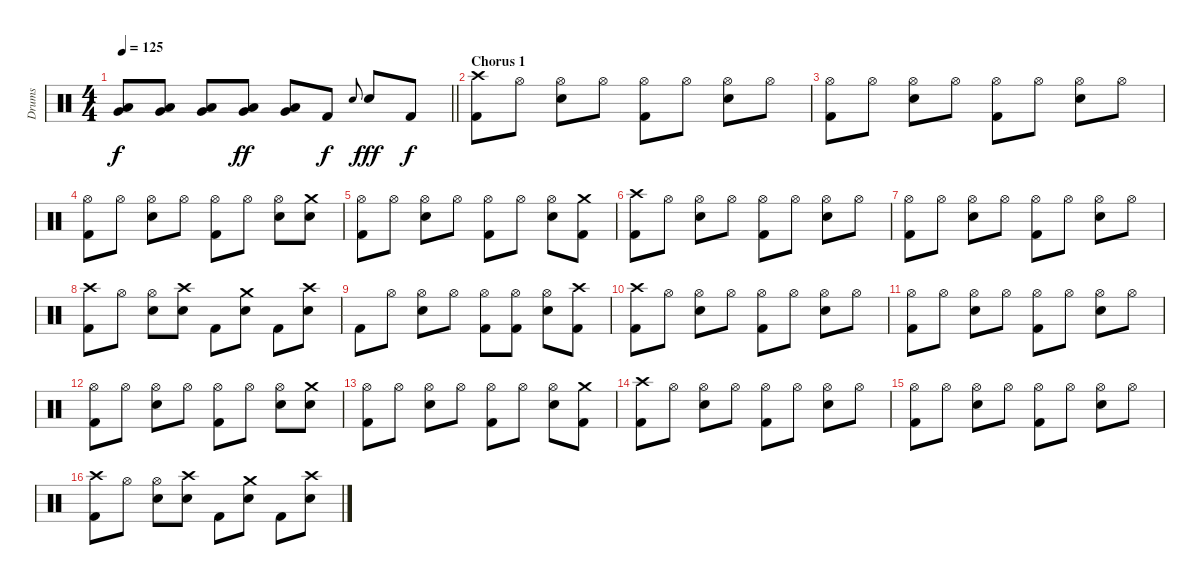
\track ("Drums" "Drums") {instrument percussion}
\staff {score}
\articulation defaults
\ts (4 4)
\tempo 125
\clef neutral
\barLineRight lightlight
\ks c
("Very Low Tom (hit)" "Low Floor Tom (hit)").8{dy f} ("Very Low Tom (hit)" "Low Floor Tom (hit)").8 ("Very Low Tom (hit)" "Low Floor Tom (hit)").8 ("Very Low Tom (hit)" "Low Floor Tom (hit)").8{dy ff} ("Very Low Tom (hit)" "Low Floor Tom (hit)").8 "Kick (hit) 2".8{dy f} "Electric Snare (hit)".8{gr onbeat} "Electric Snare (hit)".8{dy fff} "Kick (hit) 2".8{dy f} |
\section ("" "Chorus 1")
("Crash high (hit)" "Kick (hit) 2").8 "Hi-Hat (open)".8 ("Hi-Hat (open)" "Electric Snare (hit)").8 "Hi-Hat (open)".8 ("Hi-Hat (open)" "Kick (hit) 2").8 "Hi-Hat (open)".8 ("Hi-Hat (open)" "Electric Snare (hit)").8 "Hi-Hat (open)".8 |
("Hi-Hat (open)" "Kick (hit) 2").8 "Hi-Hat (open)".8 ("Hi-Hat (open)" "Electric Snare (hit)").8 "Hi-Hat (open)".8 ("Hi-Hat (open)" "Kick (hit) 2").8 "Hi-Hat (open)".8 ("Hi-Hat (open)" "Electric Snare (hit)").8 "Hi-Hat (open)".8 |
("Hi-Hat (open)" "Kick (hit) 2").8 "Hi-Hat (open)".8 ("Hi-Hat (open)" "Electric Snare (hit)").8 "Hi-Hat (open)".8 ("Hi-Hat (open)" "Kick (hit) 2").8 "Hi-Hat (open)".8 ("Hi-Hat (open)" "Electric Snare (hit)").8 ("Crash medium (hit)" "Electric Snare (hit)").8 |
("Hi-Hat (open)" "Kick (hit) 2").8 "Hi-Hat (open)".8 ("Hi-Hat (open)" "Electric Snare (hit)").8 "Hi-Hat (open)".8 ("Hi-Hat (open)" "Kick (hit) 2").8 "Hi-Hat (open)".8 ("Hi-Hat (open)" "Electric Snare (hit)").8 ("Crash medium (hit)" "Kick (hit) 2").8 |
("Crash high (hit)" "Kick (hit) 2").8 "Hi-Hat (open)".8 ("Hi-Hat (open)" "Electric Snare (hit)").8 "Hi-Hat (open)".8 ("Hi-Hat (open)" "Kick (hit) 2").8 "Hi-Hat (open)".8 ("Hi-Hat (open)" "Electric Snare (hit)").8 "Hi-Hat (open)".8 |
("Hi-Hat (open)" "Kick (hit) 2").8 "Hi-Hat (open)".8 ("Hi-Hat (open)" "Electric Snare (hit)").8 "Hi-Hat (open)".8 ("Hi-Hat (open)" "Kick (hit) 2").8 "Hi-Hat (open)".8 ("Hi-Hat (open)" "Electric Snare (hit)").8 "Hi-Hat (open)".8 |
("Crash high (hit)" "Kick (hit) 2").8 "Hi-Hat (open)".8 ("Hi-Hat (open)" "Electric Snare (hit)").8 ("Crash high (hit)" "Electric Snare (hit)").8 "Kick (hit) 2".8 ("Crash medium (hit)" "Electric Snare (hit)").8 "Kick (hit) 2".8 ("Crash high (hit)" "Electric Snare (hit)").8 |
"Kick (hit) 2".8 "Hi-Hat (open)".8 ("Hi-Hat (open)" "Electric Snare (hit)").8 "Hi-Hat (open)".8 ("Hi-Hat (open)" "Kick (hit) 2").8 ("Hi-Hat (open)" "Kick (hit) 2").8 ("Hi-Hat (open)" "Electric Snare (hit)").8 ("Crash high (hit)" "Kick (hit) 2").8 |
("Crash high (hit)" "Kick (hit) 2").8 "Hi-Hat (open)".8 ("Hi-Hat (open)" "Electric Snare (hit)").8 "Hi-Hat (open)".8 ("Hi-Hat (open)" "Kick (hit) 2").8 "Hi-Hat (open)".8 ("Hi-Hat (open)" "Electric Snare (hit)").8 "Hi-Hat (open)".8 |
("Hi-Hat (open)" "Kick (hit) 2").8 "Hi-Hat (open)".8 ("Hi-Hat (open)" "Electric Snare (hit)").8 "Hi-Hat (open)".8 ("Hi-Hat (open)" "Kick (hit) 2").8 "Hi-Hat (open)".8 ("Hi-Hat (open)" "Electric Snare (hit)").8 "Hi-Hat (open)".8 |
("Hi-Hat (open)" "Kick (hit) 2").8 "Hi-Hat (open)".8 ("Hi-Hat (open)" "Electric Snare (hit)").8 "Hi-Hat (open)".8 ("Hi-Hat (open)" "Kick (hit) 2").8 "Hi-Hat (open)".8 ("Hi-Hat (open)" "Electric Snare (hit)").8 ("Crash medium (hit)" "Electric Snare (hit)").8 |
("Hi-Hat (open)" "Kick (hit) 2").8 "Hi-Hat (open)".8 ("Hi-Hat (open)" "Electric Snare (hit)").8 "Hi-Hat (open)".8 ("Hi-Hat (open)" "Kick (hit) 2").8 "Hi-Hat (open)".8 ("Hi-Hat (open)" "Electric Snare (hit)").8 ("Crash medium (hit)" "Kick (hit) 2").8 |
("Crash high (hit)" "Kick (hit) 2").8 "Hi-Hat (open)".8 ("Hi-Hat (open)" "Electric Snare (hit)").8 "Hi-Hat (open)".8 ("Hi-Hat (open)" "Kick (hit) 2").8 "Hi-Hat (open)".8 ("Hi-Hat (open)" "Electric Snare (hit)").8 "Hi-Hat (open)".8 |
("Hi-Hat (open)" "Kick (hit) 2").8 "Hi-Hat (open)".8 ("Hi-Hat (open)" "Electric Snare (hit)").8 "Hi-Hat (open)".8 ("Hi-Hat (open)" "Kick (hit) 2").8 "Hi-Hat (open)".8 ("Hi-Hat (open)" "Electric Snare (hit)").8 "Hi-Hat (open)".8 |
("Crash high (hit)" "Kick (hit) 2").8 "Hi-Hat (open)".8 ("Hi-Hat (open)" "Electric Snare (hit)").8 ("Crash high (hit)" "Electric Snare (hit)").8 "Kick (hit) 2".8 ("Crash medium (hit)" "Electric Snare (hit)").8 "Kick (hit) 2".8 ("Crash high (hit)" "Electric Snare (hit)").8
